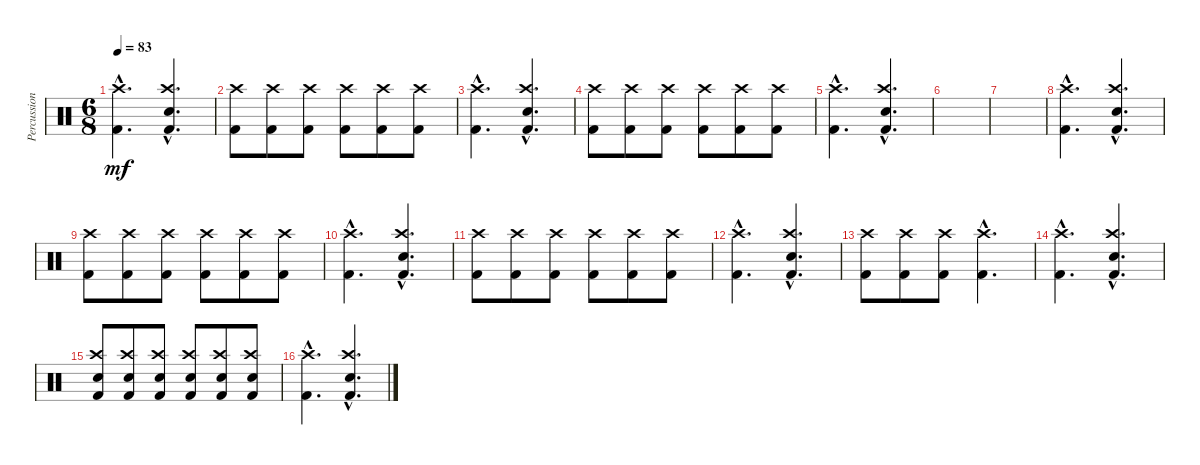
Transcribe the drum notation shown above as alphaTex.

\track ("Percussion" "Percussion") {instrument percussion}
\staff {score}
\articulation defaults
\ts (6 8)
\tempo 83
\clef neutral
\ks c
("Kick (hit) 2"{hac} "Crash high (hit)"{hac}).4{d dy mf} ("Kick (hit) 2"{hac} "Snare (hit) 2"{hac} "Crash high (hit)"{hac}).4{d} |
("Kick (hit) 2" "Crash high (hit)").8 ("Kick (hit) 2" "Crash high (hit)").8 ("Kick (hit) 2" "Crash high (hit)").8 ("Kick (hit) 2" "Crash high (hit)").8 ("Kick (hit) 2" "Crash high (hit)").8 ("Kick (hit) 2" "Crash high (hit)").8 |
("Kick (hit) 2"{hac} "Crash high (hit)"{hac}).4{d} ("Kick (hit) 2"{hac} "Snare (hit) 2"{hac} "Crash high (hit)"{hac}).4{d} |
("Kick (hit) 2" "Crash high (hit)").8 ("Kick (hit) 2" "Crash high (hit)").8 ("Kick (hit) 2" "Crash high (hit)").8 ("Kick (hit) 2" "Crash high (hit)").8 ("Kick (hit) 2" "Crash high (hit)").8 ("Kick (hit) 2" "Crash high (hit)").8 |
("Kick (hit) 2"{hac} "Crash high (hit)"{hac}).4{d} ("Kick (hit) 2"{hac} "Snare (hit) 2"{hac} "Crash high (hit)"{hac}).4{d} |
|
|
("Kick (hit) 2"{hac} "Crash high (hit)"{hac}).4{d} ("Kick (hit) 2"{hac} "Snare (hit) 2"{hac} "Crash high (hit)"{hac}).4{d} |
("Kick (hit) 2" "Crash high (hit)").8 ("Kick (hit) 2" "Crash high (hit)").8 ("Kick (hit) 2" "Crash high (hit)").8 ("Kick (hit) 2" "Crash high (hit)").8 ("Kick (hit) 2" "Crash high (hit)").8 ("Kick (hit) 2" "Crash high (hit)").8 |
("Kick (hit) 2"{hac} "Crash high (hit)"{hac}).4{d} ("Kick (hit) 2"{hac} "Snare (hit) 2"{hac} "Crash high (hit)"{hac}).4{d} |
("Kick (hit) 2" "Crash high (hit)").8 ("Kick (hit) 2" "Crash high (hit)").8 ("Kick (hit) 2" "Crash high (hit)").8 ("Kick (hit) 2" "Crash high (hit)").8 ("Kick (hit) 2" "Crash high (hit)").8 ("Kick (hit) 2" "Crash high (hit)").8 |
("Kick (hit) 2"{hac} "Crash high (hit)"{hac}).4{d} ("Kick (hit) 2"{hac} "Snare (hit) 2"{hac} "Crash high (hit)"{hac}).4{d} |
("Kick (hit) 2" "Crash high (hit)").8 ("Kick (hit) 2" "Crash high (hit)").8 ("Kick (hit) 2" "Crash high (hit)").8 ("Kick (hit) 2"{hac} "Crash high (hit)"{hac}).4{d} |
("Kick (hit) 2"{hac} "Crash high (hit)"{hac}).4{d} ("Kick (hit) 2"{hac} "Snare (hit) 2"{hac} "Crash high (hit)"{hac}).4{d} |
("Kick (hit) 2" "Crash high (hit)" "Snare (hit) 2").8 ("Kick (hit) 2" "Crash high (hit)" "Snare (hit) 2").8 ("Kick (hit) 2" "Crash high (hit)" "Snare (hit) 2").8 ("Kick (hit) 2" "Crash high (hit)" "Snare (hit) 2").8 ("Kick (hit) 2" "Crash high (hit)" "Snare (hit) 2").8 ("Kick (hit) 2" "Crash high (hit)" "Snare (hit) 2").8 |
("Kick (hit) 2"{hac} "Crash high (hit)"{hac}).4{d} ("Kick (hit) 2"{hac} "Snare (hit) 2"{hac} "Crash high (hit)"{hac}).4{d}
